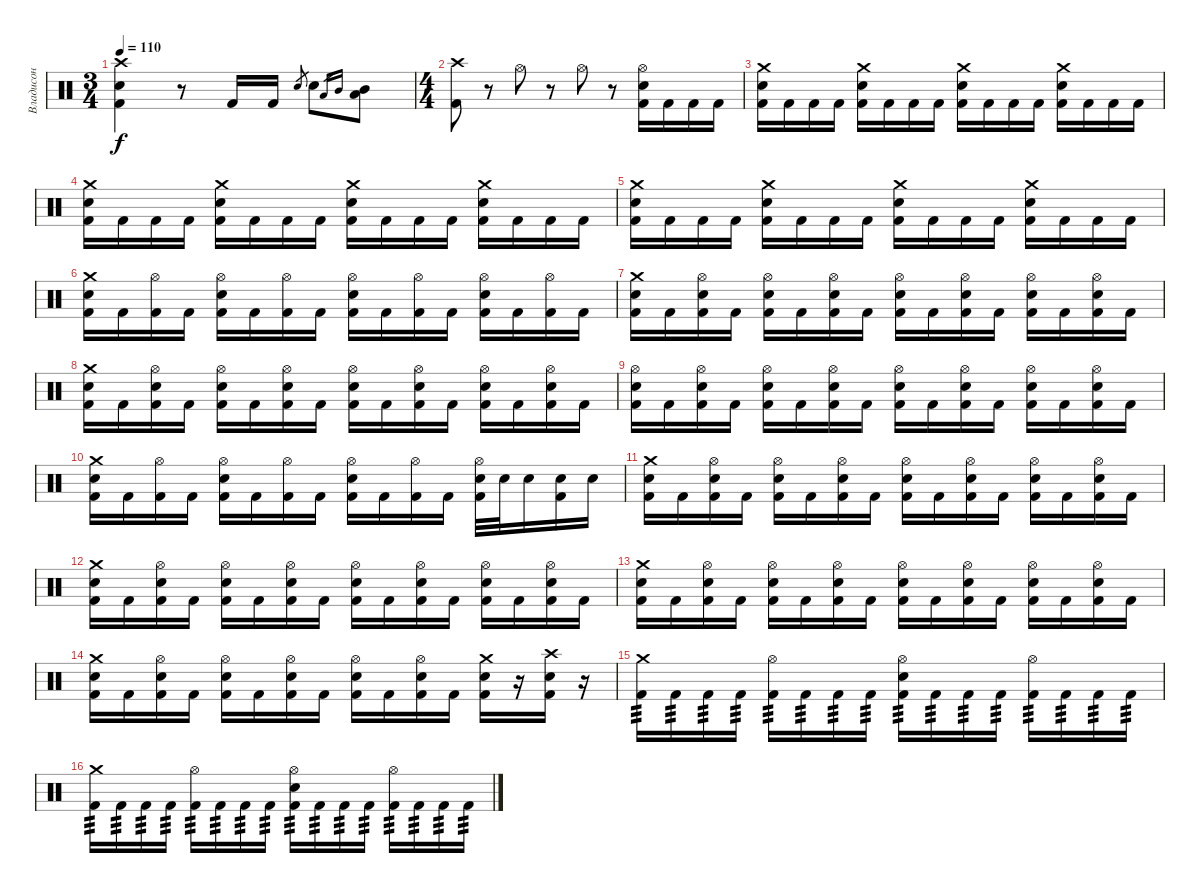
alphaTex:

\track ("Владисон" "Владисон") {instrument percussion}
\staff
\articulation defaults
\ts (3 4)
\tempo 110
\clef neutral
\ks c
("Crash high (hit)" "Kick (hit) 2" "Snare (hit) 2").4{dy f} r.8 "Kick (hit) 2".16 "Kick (hit) 2".16 "Snare (hit) 2".8{gr} "Snare (hit) 2".8 "Low Tom (hit)".16{gr} "Mid Tom (hit)".16{gr} ("Low Tom (hit)" "Mid Tom (hit)").8 |
\ts (4 4)
("Crash high (hit)" "Kick (hit) 2").8 r.8 "Hi-Hat (open)".8 r.8 "Hi-Hat (open)".8 r.8 ("Hi-Hat (open)" "Snare (hit) 2" "Kick (hit) 2").16 "Kick (hit) 2".16 "Kick (hit) 2".16 "Kick (hit) 2".16 |
("Crash medium (hit)" "Snare (hit) 2" "Kick (hit) 2").16 "Kick (hit) 2".16 "Kick (hit) 2".16 "Kick (hit) 2".16 ("Crash medium (hit)" "Snare (hit) 2" "Kick (hit) 2").16 "Kick (hit) 2".16 "Kick (hit) 2".16 "Kick (hit) 2".16 ("Crash medium (hit)" "Snare (hit) 2" "Kick (hit) 2").16 "Kick (hit) 2".16 "Kick (hit) 2".16 "Kick (hit) 2".16 ("Crash medium (hit)" "Snare (hit) 2" "Kick (hit) 2").16 "Kick (hit) 2".16 "Kick (hit) 2".16 "Kick (hit) 2".16 |
("Crash medium (hit)" "Snare (hit) 2" "Kick (hit) 2").16 "Kick (hit) 2".16 "Kick (hit) 2".16 "Kick (hit) 2".16 ("Crash medium (hit)" "Snare (hit) 2" "Kick (hit) 2").16 "Kick (hit) 2".16 "Kick (hit) 2".16 "Kick (hit) 2".16 ("Crash medium (hit)" "Snare (hit) 2" "Kick (hit) 2").16 "Kick (hit) 2".16 "Kick (hit) 2".16 "Kick (hit) 2".16 ("Crash medium (hit)" "Snare (hit) 2" "Kick (hit) 2").16 "Kick (hit) 2".16 "Kick (hit) 2".16 "Kick (hit) 2".16 |
("Crash medium (hit)" "Snare (hit) 2" "Kick (hit) 2").16 "Kick (hit) 2".16 "Kick (hit) 2".16 "Kick (hit) 2".16 ("Crash medium (hit)" "Snare (hit) 2" "Kick (hit) 2").16 "Kick (hit) 2".16 "Kick (hit) 2".16 "Kick (hit) 2".16 ("Crash medium (hit)" "Snare (hit) 2" "Kick (hit) 2").16 "Kick (hit) 2".16 "Kick (hit) 2".16 "Kick (hit) 2".16 ("Crash medium (hit)" "Snare (hit) 2" "Kick (hit) 2").16 "Kick (hit) 2".16 "Kick (hit) 2".16 "Kick (hit) 2".16 |
("Crash medium (hit)" "Snare (hit) 2" "Kick (hit) 2").16 "Kick (hit) 2".16 ("Hi-Hat (open)" "Kick (hit) 2").16 "Kick (hit) 2".16 ("Hi-Hat (open)" "Snare (hit) 2" "Kick (hit) 2").16 "Kick (hit) 2".16 ("Hi-Hat (open)" "Kick (hit) 2").16 "Kick (hit) 2".16 ("Hi-Hat (open)" "Snare (hit) 2" "Kick (hit) 2").16 "Kick (hit) 2".16 ("Hi-Hat (open)" "Kick (hit) 2").16 "Kick (hit) 2".16 ("Hi-Hat (open)" "Snare (hit) 2" "Kick (hit) 2").16 "Kick (hit) 2".16 ("Hi-Hat (open)" "Kick (hit) 2").16 "Kick (hit) 2".16 |
("Crash medium (hit)" "Snare (hit) 2" "Kick (hit) 2").16 "Kick (hit) 2".16 ("Hi-Hat (open)" "Snare (hit) 2" "Kick (hit) 2").16 "Kick (hit) 2".16 ("Hi-Hat (open)" "Snare (hit) 2" "Kick (hit) 2").16 "Kick (hit) 2".16 ("Hi-Hat (open)" "Snare (hit) 2" "Kick (hit) 2").16 "Kick (hit) 2".16 ("Hi-Hat (open)" "Snare (hit) 2" "Kick (hit) 2").16 "Kick (hit) 2".16 ("Hi-Hat (open)" "Snare (hit) 2" "Kick (hit) 2").16 "Kick (hit) 2".16 ("Hi-Hat (open)" "Snare (hit) 2" "Kick (hit) 2").16 "Kick (hit) 2".16 ("Hi-Hat (open)" "Snare (hit) 2" "Kick (hit) 2").16 "Kick (hit) 2".16 |
("Crash medium (hit)" "Snare (hit) 2" "Kick (hit) 2").16 "Kick (hit) 2".16 ("Hi-Hat (open)" "Snare (hit) 2" "Kick (hit) 2").16 "Kick (hit) 2".16 ("Hi-Hat (open)" "Snare (hit) 2" "Kick (hit) 2").16 "Kick (hit) 2".16 ("Hi-Hat (open)" "Snare (hit) 2" "Kick (hit) 2").16 "Kick (hit) 2".16 ("Hi-Hat (open)" "Snare (hit) 2" "Kick (hit) 2").16 "Kick (hit) 2".16 ("Hi-Hat (open)" "Snare (hit) 2" "Kick (hit) 2").16 "Kick (hit) 2".16 ("Hi-Hat (open)" "Snare (hit) 2" "Kick (hit) 2").16 "Kick (hit) 2".16 ("Hi-Hat (open)" "Snare (hit) 2" "Kick (hit) 2").16 "Kick (hit) 2".16 |
("Hi-Hat (open)" "Snare (hit) 2" "Kick (hit) 2").16 "Kick (hit) 2".16 ("Hi-Hat (open)" "Snare (hit) 2" "Kick (hit) 2").16 "Kick (hit) 2".16 ("Hi-Hat (open)" "Snare (hit) 2" "Kick (hit) 2").16 "Kick (hit) 2".16 ("Hi-Hat (open)" "Snare (hit) 2" "Kick (hit) 2").16 "Kick (hit) 2".16 ("Hi-Hat (open)" "Snare (hit) 2" "Kick (hit) 2").16 "Kick (hit) 2".16 ("Hi-Hat (open)" "Snare (hit) 2" "Kick (hit) 2").16 "Kick (hit) 2".16 ("Hi-Hat (open)" "Snare (hit) 2" "Kick (hit) 2").16 "Kick (hit) 2".16 ("Hi-Hat (open)" "Snare (hit) 2" "Kick (hit) 2").16 "Kick (hit) 2".16 |
("Crash medium (hit)" "Snare (hit) 2" "Kick (hit) 2").16 "Kick (hit) 2".16 ("Hi-Hat (open)" "Kick (hit) 2").16 "Kick (hit) 2".16 ("Hi-Hat (open)" "Snare (hit) 2" "Kick (hit) 2").16 "Kick (hit) 2".16 ("Hi-Hat (open)" "Kick (hit) 2").16 "Kick (hit) 2".16 ("Hi-Hat (open)" "Snare (hit) 2" "Kick (hit) 2").16 "Kick (hit) 2".16 ("Hi-Hat (open)" "Kick (hit) 2").16 "Kick (hit) 2".16 ("Hi-Hat (open)" "Snare (hit) 2" "Kick (hit) 2").32 "Snare (hit) 2".32 "Snare (hit) 2".16 ("Snare (hit) 2" "Kick (hit) 2").16 "Snare (hit) 2".16 |
("Crash medium (hit)" "Snare (hit) 2" "Kick (hit) 2").16 "Kick (hit) 2".16 ("Hi-Hat (open)" "Snare (hit) 2" "Kick (hit) 2").16 "Kick (hit) 2".16 ("Hi-Hat (open)" "Snare (hit) 2" "Kick (hit) 2").16 "Kick (hit) 2".16 ("Hi-Hat (open)" "Snare (hit) 2" "Kick (hit) 2").16 "Kick (hit) 2".16 ("Hi-Hat (open)" "Snare (hit) 2" "Kick (hit) 2").16 "Kick (hit) 2".16 ("Hi-Hat (open)" "Snare (hit) 2" "Kick (hit) 2").16 "Kick (hit) 2".16 ("Hi-Hat (open)" "Snare (hit) 2" "Kick (hit) 2").16 "Kick (hit) 2".16 ("Hi-Hat (open)" "Snare (hit) 2" "Kick (hit) 2").16 "Kick (hit) 2".16 |
("Crash medium (hit)" "Snare (hit) 2" "Kick (hit) 2").16 "Kick (hit) 2".16 ("Hi-Hat (open)" "Snare (hit) 2" "Kick (hit) 2").16 "Kick (hit) 2".16 ("Hi-Hat (open)" "Snare (hit) 2" "Kick (hit) 2").16 "Kick (hit) 2".16 ("Hi-Hat (open)" "Snare (hit) 2" "Kick (hit) 2").16 "Kick (hit) 2".16 ("Hi-Hat (open)" "Snare (hit) 2" "Kick (hit) 2").16 "Kick (hit) 2".16 ("Hi-Hat (open)" "Snare (hit) 2" "Kick (hit) 2").16 "Kick (hit) 2".16 ("Hi-Hat (open)" "Snare (hit) 2" "Kick (hit) 2").16 "Kick (hit) 2".16 ("Hi-Hat (open)" "Snare (hit) 2" "Kick (hit) 2").16 "Kick (hit) 2".16 |
("Crash medium (hit)" "Snare (hit) 2" "Kick (hit) 2").16 "Kick (hit) 2".16 ("Hi-Hat (open)" "Snare (hit) 2" "Kick (hit) 2").16 "Kick (hit) 2".16 ("Hi-Hat (open)" "Snare (hit) 2" "Kick (hit) 2").16 "Kick (hit) 2".16 ("Hi-Hat (open)" "Snare (hit) 2" "Kick (hit) 2").16 "Kick (hit) 2".16 ("Hi-Hat (open)" "Snare (hit) 2" "Kick (hit) 2").16 "Kick (hit) 2".16 ("Hi-Hat (open)" "Snare (hit) 2" "Kick (hit) 2").16 "Kick (hit) 2".16 ("Hi-Hat (open)" "Snare (hit) 2" "Kick (hit) 2").16 "Kick (hit) 2".16 ("Hi-Hat (open)" "Snare (hit) 2" "Kick (hit) 2").16 "Kick (hit) 2".16 |
("Crash medium (hit)" "Snare (hit) 2" "Kick (hit) 2").16 "Kick (hit) 2".16 ("Hi-Hat (open)" "Snare (hit) 2" "Kick (hit) 2").16 "Kick (hit) 2".16 ("Hi-Hat (open)" "Snare (hit) 2" "Kick (hit) 2").16 "Kick (hit) 2".16 ("Hi-Hat (open)" "Snare (hit) 2" "Kick (hit) 2").16 "Kick (hit) 2".16 ("Hi-Hat (open)" "Snare (hit) 2" "Kick (hit) 2").16 "Kick (hit) 2".16 ("Hi-Hat (open)" "Snare (hit) 2" "Kick (hit) 2").16 "Kick (hit) 2".16 ("Crash medium (hit)" "Snare (hit) 2" "Kick (hit) 2").16 r.16 ("Crash high (hit)" "Snare (hit) 2" "Kick (hit) 2").16 r.16 |
("Crash medium (hit)" "Kick (hit) 2").16{tp 3} "Kick (hit) 2".16{tp 3} "Kick (hit) 2".16{tp 3} "Kick (hit) 2".16{tp 3} ("Hi-Hat (open)" "Kick (hit) 2").16{tp 3} "Kick (hit) 2".16{tp 3} "Kick (hit) 2".16{tp 3} "Kick (hit) 2".16{tp 3} ("Hi-Hat (open)" "Snare (hit) 2" "Kick (hit) 2").16{tp 3} "Kick (hit) 2".16{tp 3} "Kick (hit) 2".16{tp 3} "Kick (hit) 2".16{tp 3} ("Hi-Hat (open)" "Kick (hit) 2").16{tp 3} "Kick (hit) 2".16{tp 3} "Kick (hit) 2".16{tp 3} "Kick (hit) 2".16{tp 3} |
("Crash medium (hit)" "Kick (hit) 2").16{tp 3} "Kick (hit) 2".16{tp 3} "Kick (hit) 2".16{tp 3} "Kick (hit) 2".16{tp 3} ("Hi-Hat (open)" "Kick (hit) 2").16{tp 3} "Kick (hit) 2".16{tp 3} "Kick (hit) 2".16{tp 3} "Kick (hit) 2".16{tp 3} ("Hi-Hat (open)" "Snare (hit) 2" "Kick (hit) 2").16{tp 3} "Kick (hit) 2".16{tp 3} "Kick (hit) 2".16{tp 3} "Kick (hit) 2".16{tp 3} ("Hi-Hat (open)" "Kick (hit) 2").16{tp 3} "Kick (hit) 2".16{tp 3} "Kick (hit) 2".16{tp 3} "Kick (hit) 2".16{tp 3}
